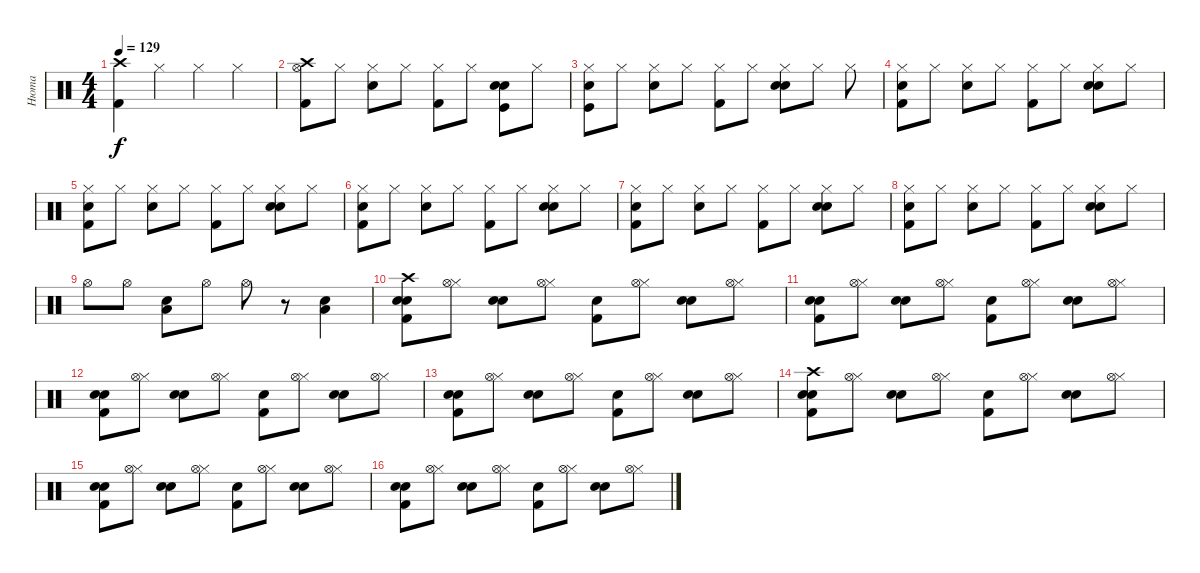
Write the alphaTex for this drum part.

\track ("Нюта" "Нюта") {instrument percussion}
\staff {score}
\articulation defaults
\ts (4 4)
\tempo 129
\clef neutral
\ks c
("Crash high (hit)" "Kick (hit) 2").4{dy f} "Hi-Hat (closed)".4 "Hi-Hat (closed)".4 "Hi-Hat (closed)".4 |
("Hi-Hat (open)" "Kick (hit) 2" "Crash high (hit)").8 "Hi-Hat (closed)".8 ("Hi-Hat (closed)" "Electric Snare (hit)").8 "Hi-Hat (closed)".8 ("Hi-Hat (closed)" "Kick (hit) 2").8 "Hi-Hat (closed)".8 ("Kick (hit)" "Snare (hit)" "Electric Snare (hit)").8 "Hi-Hat (closed)".8 |
("Hi-Hat (closed)" "Snare (hit)" "Kick (hit)").8 "Hi-Hat (closed)".8 ("Hi-Hat (closed)" "Electric Snare (hit)").8 "Hi-Hat (closed)".8 ("Hi-Hat (closed)" "Kick (hit) 2").8 "Hi-Hat (closed)".8 ("Electric Snare (hit)" "Hi-Hat (closed)" "Snare (hit)").8 "Hi-Hat (closed)".8 "Hi-Hat (closed)".8 |
("Hi-Hat (closed)" "Kick (hit) 2" "Snare (hit)").8 "Hi-Hat (closed)".8 ("Hi-Hat (closed)" "Electric Snare (hit)").8 "Hi-Hat (closed)".8 ("Hi-Hat (closed)" "Kick (hit) 2").8 "Hi-Hat (closed)".8 ("Electric Snare (hit)" "Hi-Hat (closed)" "Snare (hit)").8 "Hi-Hat (closed)".8 |
("Hi-Hat (closed)" "Kick (hit) 2" "Snare (hit)").8 "Hi-Hat (closed)".8 ("Hi-Hat (closed)" "Electric Snare (hit)").8 "Hi-Hat (closed)".8 ("Hi-Hat (closed)" "Kick (hit) 2").8 "Hi-Hat (closed)".8 ("Electric Snare (hit)" "Hi-Hat (closed)" "Snare (hit)").8 "Hi-Hat (closed)".8 |
("Hi-Hat (closed)" "Kick (hit) 2" "Snare (hit)").8 "Hi-Hat (closed)".8 ("Hi-Hat (closed)" "Electric Snare (hit)").8 "Hi-Hat (closed)".8 ("Hi-Hat (closed)" "Kick (hit) 2").8 "Hi-Hat (closed)".8 ("Electric Snare (hit)" "Hi-Hat (closed)" "Snare (hit)").8 "Hi-Hat (closed)".8 |
("Hi-Hat (closed)" "Kick (hit) 2" "Snare (hit)").8 "Hi-Hat (closed)".8 ("Hi-Hat (closed)" "Electric Snare (hit)").8 "Hi-Hat (closed)".8 ("Hi-Hat (closed)" "Kick (hit) 2").8 "Hi-Hat (closed)".8 ("Electric Snare (hit)" "Hi-Hat (closed)" "Snare (hit)").8 "Hi-Hat (closed)".8 |
("Hi-Hat (closed)" "Kick (hit) 2" "Snare (hit)").8 "Hi-Hat (closed)".8 ("Hi-Hat (closed)" "Electric Snare (hit)").8 "Hi-Hat (closed)".8 ("Hi-Hat (closed)" "Kick (hit) 2").8 "Hi-Hat (closed)".8 ("Electric Snare (hit)" "Hi-Hat (closed)" "Snare (hit)").8 "Hi-Hat (closed)".8 |
"Hi-Hat (open)".8 "Hi-Hat (open)".8 ("Electric Snare (hit)" "Low Tom (hit)").8 "Hi-Hat (open)".8 "Hi-Hat (open)".8 r.8 ("Electric Snare (hit)" "Low Tom (hit)").4 |
("Snare (hit)" "Kick (hit) 2" "Snare (hit)" "Crash high (hit)").8 ("Hi-Hat (closed)" "Hi-Hat (open)").8 ("Snare (hit)" "Electric Snare (hit)").8 ("Hi-Hat (closed)" "Hi-Hat (open)").8 ("Snare (hit)" "Kick (hit) 2").8 ("Hi-Hat (closed)" "Hi-Hat (open)").8 ("Snare (hit)" "Electric Snare (hit)").8 ("Hi-Hat (closed)" "Hi-Hat (open)").8 |
("Snare (hit)" "Kick (hit) 2" "Snare (hit)").8 ("Hi-Hat (closed)" "Hi-Hat (open)").8 ("Snare (hit)" "Electric Snare (hit)").8 ("Hi-Hat (closed)" "Hi-Hat (open)").8 ("Snare (hit)" "Kick (hit) 2").8 ("Hi-Hat (closed)" "Hi-Hat (open)").8 ("Snare (hit)" "Electric Snare (hit)").8 ("Hi-Hat (closed)" "Hi-Hat (open)").8 |
("Snare (hit)" "Kick (hit) 2" "Snare (hit)").8 ("Hi-Hat (closed)" "Hi-Hat (open)").8 ("Snare (hit)" "Electric Snare (hit)").8 ("Hi-Hat (closed)" "Hi-Hat (open)").8 ("Snare (hit)" "Kick (hit) 2").8 ("Hi-Hat (closed)" "Hi-Hat (open)").8 ("Snare (hit)" "Electric Snare (hit)").8 ("Hi-Hat (closed)" "Hi-Hat (open)").8 |
("Snare (hit)" "Kick (hit) 2" "Snare (hit)").8 ("Hi-Hat (closed)" "Hi-Hat (open)").8 ("Snare (hit)" "Electric Snare (hit)").8 ("Hi-Hat (closed)" "Hi-Hat (open)").8 ("Snare (hit)" "Kick (hit) 2").8 ("Hi-Hat (closed)" "Hi-Hat (open)").8 ("Snare (hit)" "Electric Snare (hit)").8 ("Hi-Hat (closed)" "Hi-Hat (open)").8 |
("Snare (hit)" "Kick (hit) 2" "Snare (hit)" "Crash high (hit)").8 ("Hi-Hat (closed)" "Hi-Hat (open)").8 ("Snare (hit)" "Electric Snare (hit)").8 ("Hi-Hat (closed)" "Hi-Hat (open)").8 ("Snare (hit)" "Kick (hit) 2").8 ("Hi-Hat (closed)" "Hi-Hat (open)").8 ("Snare (hit)" "Electric Snare (hit)").8 ("Hi-Hat (closed)" "Hi-Hat (open)").8 |
("Snare (hit)" "Kick (hit) 2" "Snare (hit)").8 ("Hi-Hat (closed)" "Hi-Hat (open)").8 ("Snare (hit)" "Electric Snare (hit)").8 ("Hi-Hat (closed)" "Hi-Hat (open)").8 ("Snare (hit)" "Kick (hit) 2").8 ("Hi-Hat (closed)" "Hi-Hat (open)").8 ("Snare (hit)" "Electric Snare (hit)").8 ("Hi-Hat (closed)" "Hi-Hat (open)").8 |
("Snare (hit)" "Kick (hit) 2" "Snare (hit)").8 ("Hi-Hat (closed)" "Hi-Hat (open)").8 ("Snare (hit)" "Electric Snare (hit)").8 ("Hi-Hat (closed)" "Hi-Hat (open)").8 ("Snare (hit)" "Kick (hit) 2").8 ("Hi-Hat (closed)" "Hi-Hat (open)").8 ("Snare (hit)" "Electric Snare (hit)").8 ("Hi-Hat (closed)" "Hi-Hat (open)").8
